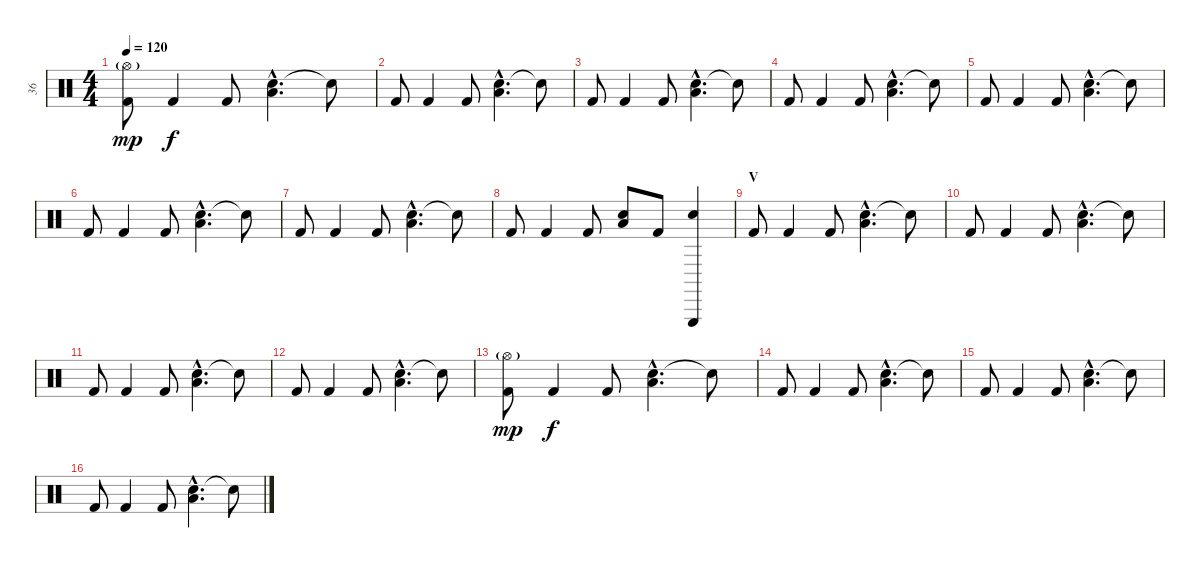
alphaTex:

\track ("36" "36") {instrument percussion}
\staff {score}
\articulation defaults
\ts (4 4)
\tempo 120
\clef neutral
\ks c
("Kick (hit) 2" "Hi-Hat (open)"{g}).8{dy mp} "Kick (hit) 2".4{dy f} "Kick (hit) 2".8 ("Electric Snare (hit)"{hac} "Low Floor Tom (hit)"{hac}).4{d} "Snare (hit)"{t}.8 |
"Kick (hit) 2".8 "Kick (hit) 2".4 "Kick (hit) 2".8 ("Electric Snare (hit)"{hac} "Low Floor Tom (hit)"{hac}).4{d} "Snare (hit)"{t}.8 |
"Kick (hit) 2".8 "Kick (hit) 2".4 "Kick (hit) 2".8 ("Electric Snare (hit)"{hac} "Low Floor Tom (hit)"{hac}).4{d} "Snare (hit)"{t}.8 |
"Kick (hit) 2".8 "Kick (hit) 2".4 "Kick (hit) 2".8 ("Electric Snare (hit)"{hac} "Low Floor Tom (hit)"{hac}).4{d} "Snare (hit)"{t}.8 |
"Kick (hit) 2".8 "Kick (hit) 2".4 "Kick (hit) 2".8 ("Electric Snare (hit)"{hac} "Low Floor Tom (hit)"{hac}).4{d} "Snare (hit)"{t}.8 |
"Kick (hit) 2".8 "Kick (hit) 2".4 "Kick (hit) 2".8 ("Electric Snare (hit)"{hac} "Low Floor Tom (hit)"{hac}).4{d} "Snare (hit)"{t}.8 |
"Kick (hit) 2".8 "Kick (hit) 2".4 "Kick (hit) 2".8 ("Electric Snare (hit)"{hac} "Low Floor Tom (hit)"{hac}).4{d} "Snare (hit)"{t}.8 |
"Kick (hit) 2".8 "Kick (hit) 2".4 "Kick (hit) 2".8 ("Electric Snare (hit)" "Low Floor Tom (hit)").8 "Kick (hit) 2".8 ("Electric Snare (hit)" "Triangle (hit)").4 |
\section ("" "V")
"Kick (hit) 2".8 "Kick (hit) 2".4 "Kick (hit) 2".8 ("Electric Snare (hit)"{hac} "Low Floor Tom (hit)"{hac}).4{d} "Snare (hit)"{t}.8 |
"Kick (hit) 2".8 "Kick (hit) 2".4 "Kick (hit) 2".8 ("Electric Snare (hit)"{hac} "Low Floor Tom (hit)"{hac}).4{d} "Snare (hit)"{t}.8 |
"Kick (hit) 2".8 "Kick (hit) 2".4 "Kick (hit) 2".8 ("Electric Snare (hit)"{hac} "Low Floor Tom (hit)"{hac}).4{d} "Snare (hit)"{t}.8 |
"Kick (hit) 2".8 "Kick (hit) 2".4 "Kick (hit) 2".8 ("Electric Snare (hit)"{hac} "Low Floor Tom (hit)"{hac}).4{d} "Snare (hit)"{t}.8 |
("Kick (hit) 2" "Hi-Hat (open)"{g}).8{dy mp} "Kick (hit) 2".4{dy f} "Kick (hit) 2".8 ("Electric Snare (hit)"{hac} "Low Floor Tom (hit)"{hac}).4{d} "Snare (hit)"{t}.8 |
"Kick (hit) 2".8 "Kick (hit) 2".4 "Kick (hit) 2".8 ("Electric Snare (hit)"{hac} "Low Floor Tom (hit)"{hac}).4{d} "Snare (hit)"{t}.8 |
"Kick (hit) 2".8 "Kick (hit) 2".4 "Kick (hit) 2".8 ("Electric Snare (hit)"{hac} "Low Floor Tom (hit)"{hac}).4{d} "Snare (hit)"{t}.8 |
"Kick (hit) 2".8 "Kick (hit) 2".4 "Kick (hit) 2".8 ("Electric Snare (hit)"{hac} "Low Floor Tom (hit)"{hac}).4{d} "Snare (hit)"{t}.8
